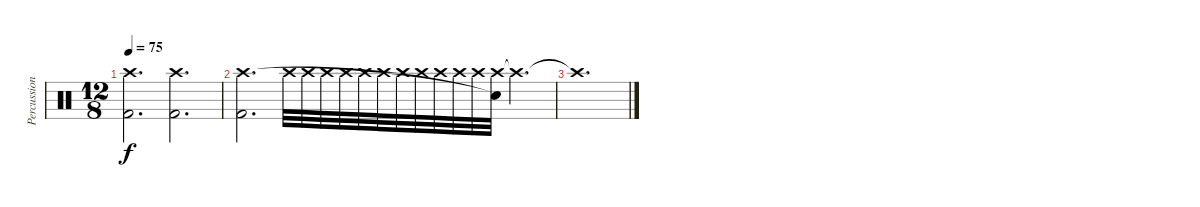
\track ("Percussion" "Percussion") {instrument percussion}
\staff {score}
\articulation defaults
\ts (12 8)
\tempo 75
\clef neutral
\ks c
("Kick (hit) 2" "Crash high (hit)").2{d dy f} ("Kick (hit) 2" "Crash high (hit)").2{d} |
("Kick (hit) 2" "Crash high (hit)").2{d} "Crash high (hit)".32 "Crash high (hit)".32 "Crash high (hit)".32 "Crash high (hit)".32 "Crash high (hit)".32 "Crash high (hit)".32 "Crash high (hit)".32 "Crash high (hit)".32 "Crash high (hit)".32 "Crash high (hit)".32 "Crash high (hit)".32 ("Crash high (hit)" "Snare (hit)"{t}).32 "Crash high (hit)"{t}.4{d} |
"Crash high (hit)"{t}.1{d}
